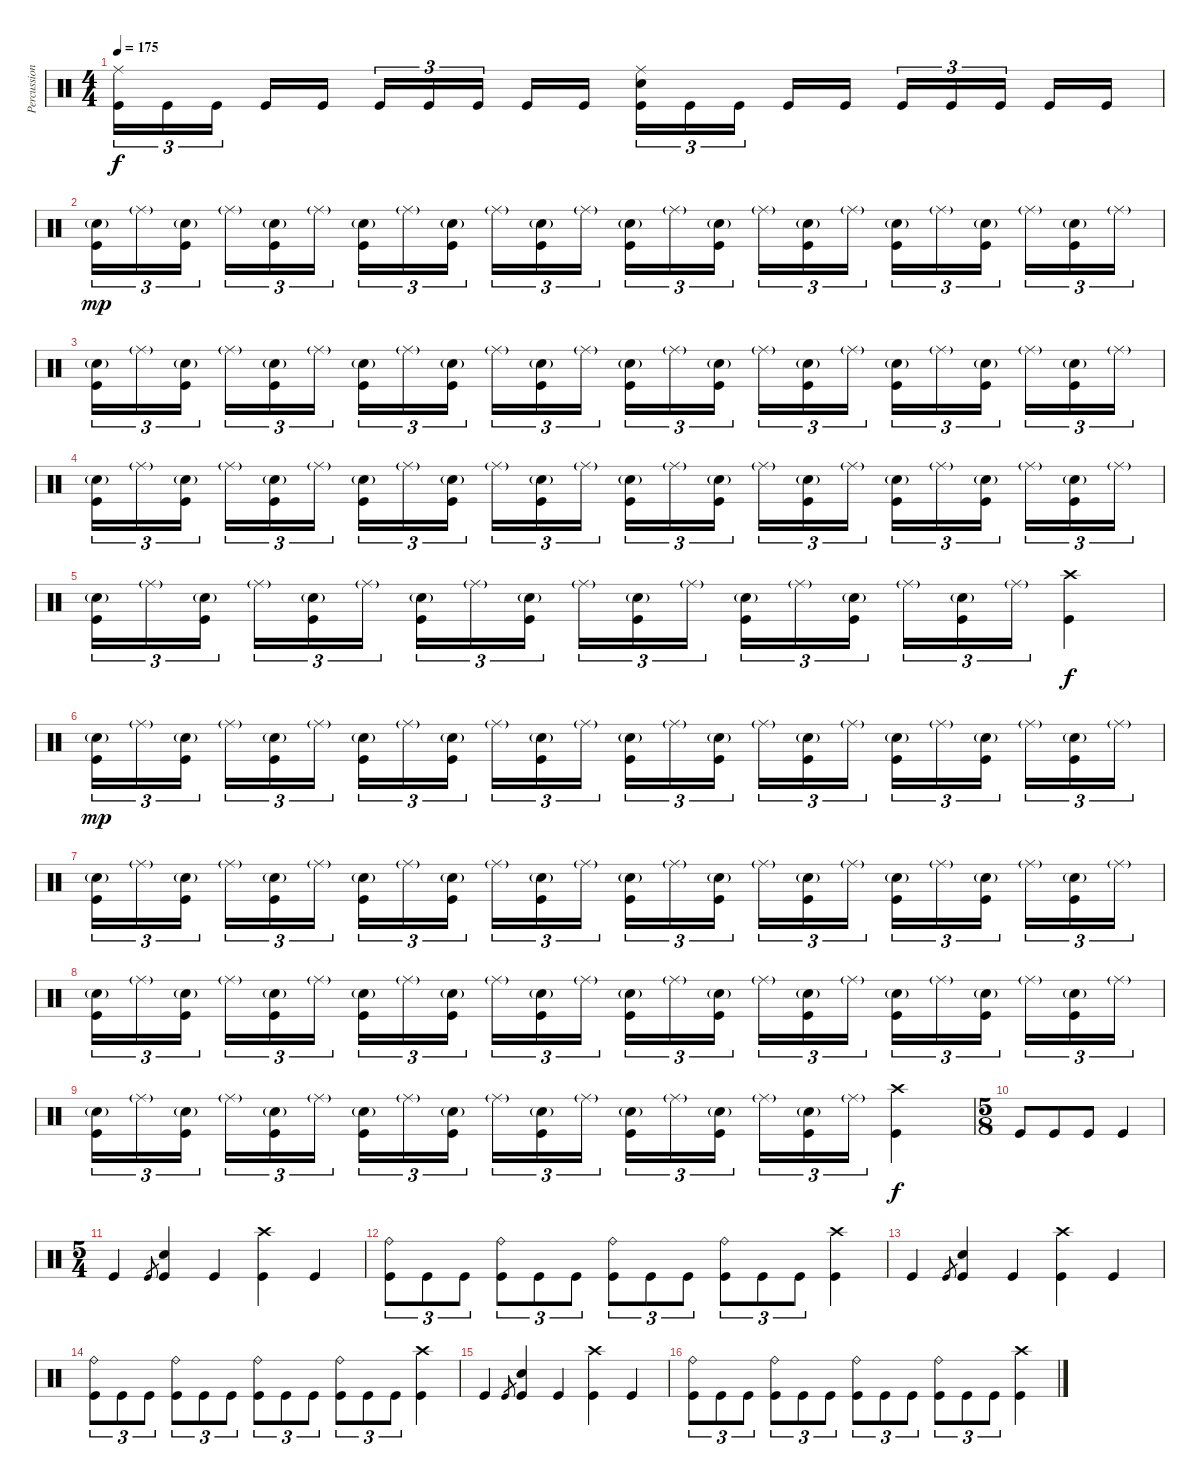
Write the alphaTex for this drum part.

\track ("Percussion" "Percussion") {instrument percussion}
\staff {score}
\articulation defaults
\ts (4 4)
\tempo 175
\clef neutral
\ks c
("Ride (middle)" "Kick (hit)").16{tu (3 2) dy f} "Kick (hit)".16{tu (3 2)} "Kick (hit)".16{tu (3 2) beam splitsecondary} "Kick (hit)".16 "Kick (hit)".16 "Kick (hit)".16{tu (3 2)} "Kick (hit)".16{tu (3 2)} "Kick (hit)".16{tu (3 2) beam splitsecondary} "Kick (hit)".16 "Kick (hit)".16 ("Ride (middle)" "Electric Snare (hit)" "Kick (hit)").16{tu (3 2)} "Kick (hit)".16{tu (3 2)} "Kick (hit)".16{tu (3 2) beam splitsecondary} "Kick (hit)".16 "Kick (hit)".16 "Kick (hit)".16{tu (3 2)} "Kick (hit)".16{tu (3 2)} "Kick (hit)".16{tu (3 2) beam splitsecondary} "Kick (hit)".16 "Kick (hit)".16 |
("Electric Snare (hit)"{g} "Kick (hit)").16{tu (3 2) dy mp} "Ride (middle)"{g}.16{tu (3 2)} ("Electric Snare (hit)"{g} "Kick (hit)").16{tu (3 2) beam splitsecondary} "Ride (middle)"{g}.16{tu (3 2)} ("Electric Snare (hit)"{g} "Kick (hit)").16{tu (3 2)} "Ride (middle)"{g}.16{tu (3 2)} ("Electric Snare (hit)"{g} "Kick (hit)").16{tu (3 2)} "Ride (middle)"{g}.16{tu (3 2)} ("Electric Snare (hit)"{g} "Kick (hit)").16{tu (3 2) beam splitsecondary} "Ride (middle)"{g}.16{tu (3 2)} ("Electric Snare (hit)"{g} "Kick (hit)").16{tu (3 2)} "Ride (middle)"{g}.16{tu (3 2)} ("Electric Snare (hit)"{g} "Kick (hit)").16{tu (3 2)} "Ride (middle)"{g}.16{tu (3 2)} ("Electric Snare (hit)"{g} "Kick (hit)").16{tu (3 2) beam splitsecondary} "Ride (middle)"{g}.16{tu (3 2)} ("Electric Snare (hit)"{g} "Kick (hit)").16{tu (3 2)} "Ride (middle)"{g}.16{tu (3 2)} ("Electric Snare (hit)"{g} "Kick (hit)").16{tu (3 2)} "Ride (middle)"{g}.16{tu (3 2)} ("Electric Snare (hit)"{g} "Kick (hit)").16{tu (3 2) beam splitsecondary} "Ride (middle)"{g}.16{tu (3 2)} ("Electric Snare (hit)"{g} "Kick (hit)").16{tu (3 2)} "Ride (middle)"{g}.16{tu (3 2)} |
("Electric Snare (hit)"{g} "Kick (hit)").16{tu (3 2)} "Ride (middle)"{g}.16{tu (3 2)} ("Electric Snare (hit)"{g} "Kick (hit)").16{tu (3 2) beam splitsecondary} "Ride (middle)"{g}.16{tu (3 2)} ("Electric Snare (hit)"{g} "Kick (hit)").16{tu (3 2)} "Ride (middle)"{g}.16{tu (3 2)} ("Electric Snare (hit)"{g} "Kick (hit)").16{tu (3 2)} "Ride (middle)"{g}.16{tu (3 2)} ("Electric Snare (hit)"{g} "Kick (hit)").16{tu (3 2) beam splitsecondary} "Ride (middle)"{g}.16{tu (3 2)} ("Electric Snare (hit)"{g} "Kick (hit)").16{tu (3 2)} "Ride (middle)"{g}.16{tu (3 2)} ("Electric Snare (hit)"{g} "Kick (hit)").16{tu (3 2)} "Ride (middle)"{g}.16{tu (3 2)} ("Electric Snare (hit)"{g} "Kick (hit)").16{tu (3 2) beam splitsecondary} "Ride (middle)"{g}.16{tu (3 2)} ("Electric Snare (hit)"{g} "Kick (hit)").16{tu (3 2)} "Ride (middle)"{g}.16{tu (3 2)} ("Electric Snare (hit)"{g} "Kick (hit)").16{tu (3 2)} "Ride (middle)"{g}.16{tu (3 2)} ("Electric Snare (hit)"{g} "Kick (hit)").16{tu (3 2) beam splitsecondary} "Ride (middle)"{g}.16{tu (3 2)} ("Electric Snare (hit)"{g} "Kick (hit)").16{tu (3 2)} "Ride (middle)"{g}.16{tu (3 2)} |
("Electric Snare (hit)"{g} "Kick (hit)").16{tu (3 2)} "Ride (middle)"{g}.16{tu (3 2)} ("Electric Snare (hit)"{g} "Kick (hit)").16{tu (3 2) beam splitsecondary} "Ride (middle)"{g}.16{tu (3 2)} ("Electric Snare (hit)"{g} "Kick (hit)").16{tu (3 2)} "Ride (middle)"{g}.16{tu (3 2)} ("Electric Snare (hit)"{g} "Kick (hit)").16{tu (3 2)} "Ride (middle)"{g}.16{tu (3 2)} ("Electric Snare (hit)"{g} "Kick (hit)").16{tu (3 2) beam splitsecondary} "Ride (middle)"{g}.16{tu (3 2)} ("Electric Snare (hit)"{g} "Kick (hit)").16{tu (3 2)} "Ride (middle)"{g}.16{tu (3 2)} ("Electric Snare (hit)"{g} "Kick (hit)").16{tu (3 2)} "Ride (middle)"{g}.16{tu (3 2)} ("Electric Snare (hit)"{g} "Kick (hit)").16{tu (3 2) beam splitsecondary} "Ride (middle)"{g}.16{tu (3 2)} ("Electric Snare (hit)"{g} "Kick (hit)").16{tu (3 2)} "Ride (middle)"{g}.16{tu (3 2)} ("Electric Snare (hit)"{g} "Kick (hit)").16{tu (3 2)} "Ride (middle)"{g}.16{tu (3 2)} ("Electric Snare (hit)"{g} "Kick (hit)").16{tu (3 2) beam splitsecondary} "Ride (middle)"{g}.16{tu (3 2)} ("Electric Snare (hit)"{g} "Kick (hit)").16{tu (3 2)} "Ride (middle)"{g}.16{tu (3 2)} |
("Electric Snare (hit)"{g} "Kick (hit)").16{tu (3 2)} "Ride (middle)"{g}.16{tu (3 2)} ("Electric Snare (hit)"{g} "Kick (hit)").16{tu (3 2) beam splitsecondary} "Ride (middle)"{g}.16{tu (3 2)} ("Electric Snare (hit)"{g} "Kick (hit)").16{tu (3 2)} "Ride (middle)"{g}.16{tu (3 2)} ("Electric Snare (hit)"{g} "Kick (hit)").16{tu (3 2)} "Ride (middle)"{g}.16{tu (3 2)} ("Electric Snare (hit)"{g} "Kick (hit)").16{tu (3 2) beam splitsecondary} "Ride (middle)"{g}.16{tu (3 2)} ("Electric Snare (hit)"{g} "Kick (hit)").16{tu (3 2)} "Ride (middle)"{g}.16{tu (3 2)} ("Electric Snare (hit)"{g} "Kick (hit)").16{tu (3 2)} "Ride (middle)"{g}.16{tu (3 2)} ("Electric Snare (hit)"{g} "Kick (hit)").16{tu (3 2) beam splitsecondary} "Ride (middle)"{g}.16{tu (3 2)} ("Electric Snare (hit)"{g} "Kick (hit)").16{tu (3 2)} "Ride (middle)"{g}.16{tu (3 2)} ("Crash high (hit)" "Kick (hit)").4{dy f} |
("Electric Snare (hit)"{g} "Kick (hit)").16{tu (3 2) dy mp} "Ride (middle)"{g}.16{tu (3 2)} ("Electric Snare (hit)"{g} "Kick (hit)").16{tu (3 2) beam splitsecondary} "Ride (middle)"{g}.16{tu (3 2)} ("Electric Snare (hit)"{g} "Kick (hit)").16{tu (3 2)} "Ride (middle)"{g}.16{tu (3 2)} ("Electric Snare (hit)"{g} "Kick (hit)").16{tu (3 2)} "Ride (middle)"{g}.16{tu (3 2)} ("Electric Snare (hit)"{g} "Kick (hit)").16{tu (3 2) beam splitsecondary} "Ride (middle)"{g}.16{tu (3 2)} ("Electric Snare (hit)"{g} "Kick (hit)").16{tu (3 2)} "Ride (middle)"{g}.16{tu (3 2)} ("Electric Snare (hit)"{g} "Kick (hit)").16{tu (3 2)} "Ride (middle)"{g}.16{tu (3 2)} ("Electric Snare (hit)"{g} "Kick (hit)").16{tu (3 2) beam splitsecondary} "Ride (middle)"{g}.16{tu (3 2)} ("Electric Snare (hit)"{g} "Kick (hit)").16{tu (3 2)} "Ride (middle)"{g}.16{tu (3 2)} ("Electric Snare (hit)"{g} "Kick (hit)").16{tu (3 2)} "Ride (middle)"{g}.16{tu (3 2)} ("Electric Snare (hit)"{g} "Kick (hit)").16{tu (3 2) beam splitsecondary} "Ride (middle)"{g}.16{tu (3 2)} ("Electric Snare (hit)"{g} "Kick (hit)").16{tu (3 2)} "Ride (middle)"{g}.16{tu (3 2)} |
("Electric Snare (hit)"{g} "Kick (hit)").16{tu (3 2)} "Ride (middle)"{g}.16{tu (3 2)} ("Electric Snare (hit)"{g} "Kick (hit)").16{tu (3 2) beam splitsecondary} "Ride (middle)"{g}.16{tu (3 2)} ("Electric Snare (hit)"{g} "Kick (hit)").16{tu (3 2)} "Ride (middle)"{g}.16{tu (3 2)} ("Electric Snare (hit)"{g} "Kick (hit)").16{tu (3 2)} "Ride (middle)"{g}.16{tu (3 2)} ("Electric Snare (hit)"{g} "Kick (hit)").16{tu (3 2) beam splitsecondary} "Ride (middle)"{g}.16{tu (3 2)} ("Electric Snare (hit)"{g} "Kick (hit)").16{tu (3 2)} "Ride (middle)"{g}.16{tu (3 2)} ("Electric Snare (hit)"{g} "Kick (hit)").16{tu (3 2)} "Ride (middle)"{g}.16{tu (3 2)} ("Electric Snare (hit)"{g} "Kick (hit)").16{tu (3 2) beam splitsecondary} "Ride (middle)"{g}.16{tu (3 2)} ("Electric Snare (hit)"{g} "Kick (hit)").16{tu (3 2)} "Ride (middle)"{g}.16{tu (3 2)} ("Electric Snare (hit)"{g} "Kick (hit)").16{tu (3 2)} "Ride (middle)"{g}.16{tu (3 2)} ("Electric Snare (hit)"{g} "Kick (hit)").16{tu (3 2) beam splitsecondary} "Ride (middle)"{g}.16{tu (3 2)} ("Electric Snare (hit)"{g} "Kick (hit)").16{tu (3 2)} "Ride (middle)"{g}.16{tu (3 2)} |
("Electric Snare (hit)"{g} "Kick (hit)").16{tu (3 2)} "Ride (middle)"{g}.16{tu (3 2)} ("Electric Snare (hit)"{g} "Kick (hit)").16{tu (3 2) beam splitsecondary} "Ride (middle)"{g}.16{tu (3 2)} ("Electric Snare (hit)"{g} "Kick (hit)").16{tu (3 2)} "Ride (middle)"{g}.16{tu (3 2)} ("Electric Snare (hit)"{g} "Kick (hit)").16{tu (3 2)} "Ride (middle)"{g}.16{tu (3 2)} ("Electric Snare (hit)"{g} "Kick (hit)").16{tu (3 2) beam splitsecondary} "Ride (middle)"{g}.16{tu (3 2)} ("Electric Snare (hit)"{g} "Kick (hit)").16{tu (3 2)} "Ride (middle)"{g}.16{tu (3 2)} ("Electric Snare (hit)"{g} "Kick (hit)").16{tu (3 2)} "Ride (middle)"{g}.16{tu (3 2)} ("Electric Snare (hit)"{g} "Kick (hit)").16{tu (3 2) beam splitsecondary} "Ride (middle)"{g}.16{tu (3 2)} ("Electric Snare (hit)"{g} "Kick (hit)").16{tu (3 2)} "Ride (middle)"{g}.16{tu (3 2)} ("Electric Snare (hit)"{g} "Kick (hit)").16{tu (3 2)} "Ride (middle)"{g}.16{tu (3 2)} ("Electric Snare (hit)"{g} "Kick (hit)").16{tu (3 2) beam splitsecondary} "Ride (middle)"{g}.16{tu (3 2)} ("Electric Snare (hit)"{g} "Kick (hit)").16{tu (3 2)} "Ride (middle)"{g}.16{tu (3 2)} |
("Electric Snare (hit)"{g} "Kick (hit)").16{tu (3 2)} "Ride (middle)"{g}.16{tu (3 2)} ("Electric Snare (hit)"{g} "Kick (hit)").16{tu (3 2) beam splitsecondary} "Ride (middle)"{g}.16{tu (3 2)} ("Electric Snare (hit)"{g} "Kick (hit)").16{tu (3 2)} "Ride (middle)"{g}.16{tu (3 2)} ("Electric Snare (hit)"{g} "Kick (hit)").16{tu (3 2)} "Ride (middle)"{g}.16{tu (3 2)} ("Electric Snare (hit)"{g} "Kick (hit)").16{tu (3 2) beam splitsecondary} "Ride (middle)"{g}.16{tu (3 2)} ("Electric Snare (hit)"{g} "Kick (hit)").16{tu (3 2)} "Ride (middle)"{g}.16{tu (3 2)} ("Electric Snare (hit)"{g} "Kick (hit)").16{tu (3 2)} "Ride (middle)"{g}.16{tu (3 2)} ("Electric Snare (hit)"{g} "Kick (hit)").16{tu (3 2) beam splitsecondary} "Ride (middle)"{g}.16{tu (3 2)} ("Electric Snare (hit)"{g} "Kick (hit)").16{tu (3 2)} "Ride (middle)"{g}.16{tu (3 2)} ("Crash high (hit)" "Kick (hit)").4{dy f} |
\ts (5 8)
"Kick (hit)".8 "Kick (hit)".8 "Kick (hit)".8 "Kick (hit)".4 |
\ts (5 4)
"Kick (hit)".4 "Kick (hit)".8{gr} ("Electric Snare (hit)" "Kick (hit)").4 "Kick (hit)".4 ("Crash high (hit)" "Kick (hit)").4 "Kick (hit)".4 |
("Ride (bell)" "Kick (hit)").8{tu (3 2)} "Kick (hit)".8{tu (3 2)} "Kick (hit)".8{tu (3 2)} ("Ride (bell)" "Kick (hit)").8{tu (3 2)} "Kick (hit)".8{tu (3 2)} "Kick (hit)".8{tu (3 2)} ("Ride (bell)" "Kick (hit)").8{tu (3 2)} "Kick (hit)".8{tu (3 2)} "Kick (hit)".8{tu (3 2)} ("Ride (bell)" "Kick (hit)").8{tu (3 2)} "Kick (hit)".8{tu (3 2)} "Kick (hit)".8{tu (3 2)} ("Crash high (hit)" "Kick (hit)").4 |
"Kick (hit)".4 "Kick (hit)".8{gr} ("Electric Snare (hit)" "Kick (hit)").4 "Kick (hit)".4 ("Crash high (hit)" "Kick (hit)").4 "Kick (hit)".4 |
("Ride (bell)" "Kick (hit)").8{tu (3 2)} "Kick (hit)".8{tu (3 2)} "Kick (hit)".8{tu (3 2)} ("Ride (bell)" "Kick (hit)").8{tu (3 2)} "Kick (hit)".8{tu (3 2)} "Kick (hit)".8{tu (3 2)} ("Ride (bell)" "Kick (hit)").8{tu (3 2)} "Kick (hit)".8{tu (3 2)} "Kick (hit)".8{tu (3 2)} ("Ride (bell)" "Kick (hit)").8{tu (3 2)} "Kick (hit)".8{tu (3 2)} "Kick (hit)".8{tu (3 2)} ("Crash high (hit)" "Kick (hit)").4 |
"Kick (hit)".4 "Kick (hit)".8{gr} ("Electric Snare (hit)" "Kick (hit)").4 "Kick (hit)".4 ("Crash high (hit)" "Kick (hit)").4 "Kick (hit)".4 |
("Ride (bell)" "Kick (hit)").8{tu (3 2)} "Kick (hit)".8{tu (3 2)} "Kick (hit)".8{tu (3 2)} ("Ride (bell)" "Kick (hit)").8{tu (3 2)} "Kick (hit)".8{tu (3 2)} "Kick (hit)".8{tu (3 2)} ("Ride (bell)" "Kick (hit)").8{tu (3 2)} "Kick (hit)".8{tu (3 2)} "Kick (hit)".8{tu (3 2)} ("Ride (bell)" "Kick (hit)").8{tu (3 2)} "Kick (hit)".8{tu (3 2)} "Kick (hit)".8{tu (3 2)} ("Crash high (hit)" "Kick (hit)").4
